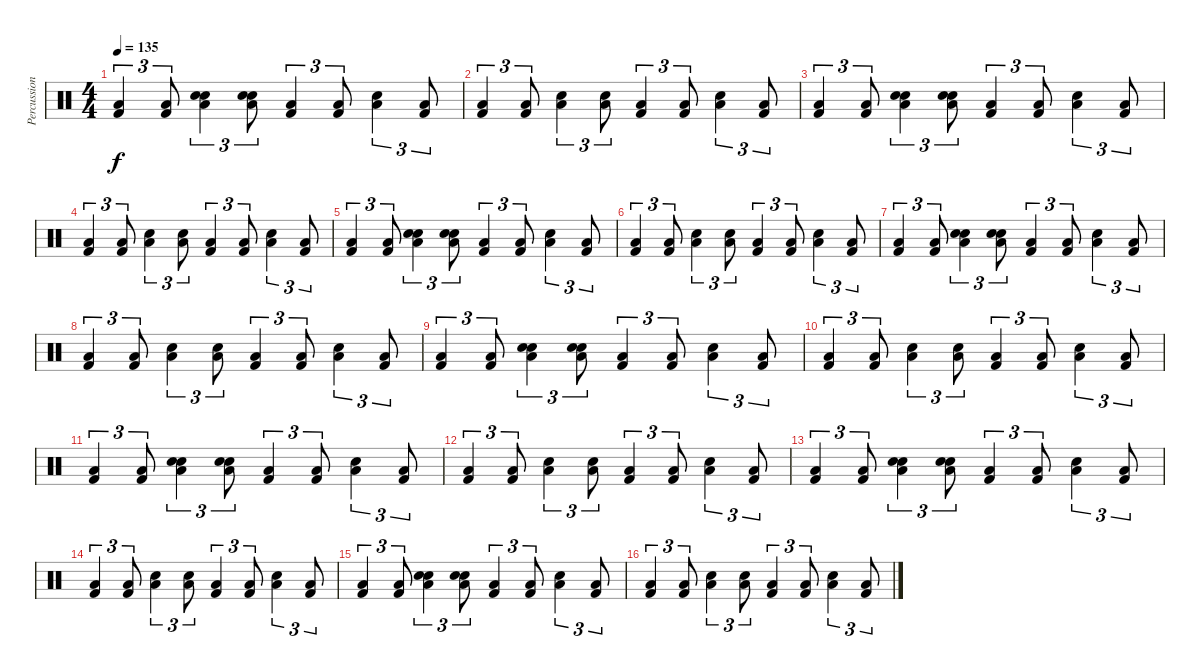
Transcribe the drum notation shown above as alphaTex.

\track ("Percussion" "Percussion") {instrument percussion}
\staff {score}
\articulation defaults
\ts (4 4)
\tempo 135
\clef neutral
\ks c
("Low Floor Tom (hit)" "Kick (hit) 2").4{tu (3 2) dy f} ("Low Floor Tom (hit)" "Kick (hit) 2").8{tu (3 2)} ("Hand Clap (hit)" "Low Floor Tom (hit)" "Electric Snare (hit)").4{tu (3 2)} ("Hand Clap (hit)" "Low Floor Tom (hit)" "Electric Snare (hit)").8{tu (3 2)} ("Low Floor Tom (hit)" "Kick (hit) 2").4{tu (3 2)} ("Low Floor Tom (hit)" "Kick (hit) 2").8{tu (3 2)} ("Low Floor Tom (hit)" "Electric Snare (hit)").4{tu (3 2)} ("Low Floor Tom (hit)" "Kick (hit) 2").8{tu (3 2)} |
("Low Floor Tom (hit)" "Kick (hit) 2").4{tu (3 2)} ("Low Floor Tom (hit)" "Kick (hit) 2").8{tu (3 2)} ("Low Floor Tom (hit)" "Electric Snare (hit)").4{tu (3 2)} ("Low Floor Tom (hit)" "Electric Snare (hit)").8{tu (3 2)} ("Low Floor Tom (hit)" "Kick (hit) 2").4{tu (3 2)} ("Low Floor Tom (hit)" "Kick (hit) 2").8{tu (3 2)} ("Low Floor Tom (hit)" "Electric Snare (hit)").4{tu (3 2)} ("Low Floor Tom (hit)" "Kick (hit) 2").8{tu (3 2)} |
("Low Floor Tom (hit)" "Kick (hit) 2").4{tu (3 2)} ("Low Floor Tom (hit)" "Kick (hit) 2").8{tu (3 2)} ("Hand Clap (hit)" "Low Floor Tom (hit)" "Electric Snare (hit)").4{tu (3 2)} ("Hand Clap (hit)" "Low Floor Tom (hit)" "Electric Snare (hit)").8{tu (3 2)} ("Low Floor Tom (hit)" "Kick (hit) 2").4{tu (3 2)} ("Low Floor Tom (hit)" "Kick (hit) 2").8{tu (3 2)} ("Low Floor Tom (hit)" "Electric Snare (hit)").4{tu (3 2)} ("Low Floor Tom (hit)" "Kick (hit) 2").8{tu (3 2)} |
("Low Floor Tom (hit)" "Kick (hit) 2").4{tu (3 2)} ("Low Floor Tom (hit)" "Kick (hit) 2").8{tu (3 2)} ("Low Floor Tom (hit)" "Electric Snare (hit)").4{tu (3 2)} ("Low Floor Tom (hit)" "Electric Snare (hit)").8{tu (3 2)} ("Low Floor Tom (hit)" "Kick (hit) 2").4{tu (3 2)} ("Low Floor Tom (hit)" "Kick (hit) 2").8{tu (3 2)} ("Low Floor Tom (hit)" "Electric Snare (hit)").4{tu (3 2)} ("Low Floor Tom (hit)" "Kick (hit) 2").8{tu (3 2)} |
("Low Floor Tom (hit)" "Kick (hit) 2").4{tu (3 2)} ("Low Floor Tom (hit)" "Kick (hit) 2").8{tu (3 2)} ("Hand Clap (hit)" "Low Floor Tom (hit)" "Electric Snare (hit)").4{tu (3 2)} ("Hand Clap (hit)" "Low Floor Tom (hit)" "Electric Snare (hit)").8{tu (3 2)} ("Low Floor Tom (hit)" "Kick (hit) 2").4{tu (3 2)} ("Low Floor Tom (hit)" "Kick (hit) 2").8{tu (3 2)} ("Low Floor Tom (hit)" "Electric Snare (hit)").4{tu (3 2)} ("Low Floor Tom (hit)" "Kick (hit) 2").8{tu (3 2)} |
("Low Floor Tom (hit)" "Kick (hit) 2").4{tu (3 2)} ("Low Floor Tom (hit)" "Kick (hit) 2").8{tu (3 2)} ("Low Floor Tom (hit)" "Electric Snare (hit)").4{tu (3 2)} ("Low Floor Tom (hit)" "Electric Snare (hit)").8{tu (3 2)} ("Low Floor Tom (hit)" "Kick (hit) 2").4{tu (3 2)} ("Low Floor Tom (hit)" "Kick (hit) 2").8{tu (3 2)} ("Low Floor Tom (hit)" "Electric Snare (hit)").4{tu (3 2)} ("Low Floor Tom (hit)" "Kick (hit) 2").8{tu (3 2)} |
("Low Floor Tom (hit)" "Kick (hit) 2").4{tu (3 2)} ("Low Floor Tom (hit)" "Kick (hit) 2").8{tu (3 2)} ("Hand Clap (hit)" "Low Floor Tom (hit)" "Electric Snare (hit)").4{tu (3 2)} ("Hand Clap (hit)" "Low Floor Tom (hit)" "Electric Snare (hit)").8{tu (3 2)} ("Low Floor Tom (hit)" "Kick (hit) 2").4{tu (3 2)} ("Low Floor Tom (hit)" "Kick (hit) 2").8{tu (3 2)} ("Low Floor Tom (hit)" "Electric Snare (hit)").4{tu (3 2)} ("Low Floor Tom (hit)" "Kick (hit) 2").8{tu (3 2)} |
("Low Floor Tom (hit)" "Kick (hit) 2").4{tu (3 2)} ("Low Floor Tom (hit)" "Kick (hit) 2").8{tu (3 2)} ("Low Floor Tom (hit)" "Electric Snare (hit)").4{tu (3 2)} ("Low Floor Tom (hit)" "Electric Snare (hit)").8{tu (3 2)} ("Low Floor Tom (hit)" "Kick (hit) 2").4{tu (3 2)} ("Low Floor Tom (hit)" "Kick (hit) 2").8{tu (3 2)} ("Low Floor Tom (hit)" "Electric Snare (hit)").4{tu (3 2)} ("Low Floor Tom (hit)" "Kick (hit) 2").8{tu (3 2)} |
("Low Floor Tom (hit)" "Kick (hit) 2").4{tu (3 2)} ("Low Floor Tom (hit)" "Kick (hit) 2").8{tu (3 2)} ("Hand Clap (hit)" "Low Floor Tom (hit)" "Electric Snare (hit)").4{tu (3 2)} ("Hand Clap (hit)" "Low Floor Tom (hit)" "Electric Snare (hit)").8{tu (3 2)} ("Low Floor Tom (hit)" "Kick (hit) 2").4{tu (3 2)} ("Low Floor Tom (hit)" "Kick (hit) 2").8{tu (3 2)} ("Low Floor Tom (hit)" "Electric Snare (hit)").4{tu (3 2)} ("Low Floor Tom (hit)" "Kick (hit) 2").8{tu (3 2)} |
("Low Floor Tom (hit)" "Kick (hit) 2").4{tu (3 2)} ("Low Floor Tom (hit)" "Kick (hit) 2").8{tu (3 2)} ("Low Floor Tom (hit)" "Electric Snare (hit)").4{tu (3 2)} ("Low Floor Tom (hit)" "Electric Snare (hit)").8{tu (3 2)} ("Low Floor Tom (hit)" "Kick (hit) 2").4{tu (3 2)} ("Low Floor Tom (hit)" "Kick (hit) 2").8{tu (3 2)} ("Low Floor Tom (hit)" "Electric Snare (hit)").4{tu (3 2)} ("Low Floor Tom (hit)" "Kick (hit) 2").8{tu (3 2)} |
("Low Floor Tom (hit)" "Kick (hit) 2").4{tu (3 2)} ("Low Floor Tom (hit)" "Kick (hit) 2").8{tu (3 2)} ("Hand Clap (hit)" "Low Floor Tom (hit)" "Electric Snare (hit)").4{tu (3 2)} ("Hand Clap (hit)" "Low Floor Tom (hit)" "Electric Snare (hit)").8{tu (3 2)} ("Low Floor Tom (hit)" "Kick (hit) 2").4{tu (3 2)} ("Low Floor Tom (hit)" "Kick (hit) 2").8{tu (3 2)} ("Low Floor Tom (hit)" "Electric Snare (hit)").4{tu (3 2)} ("Low Floor Tom (hit)" "Kick (hit) 2").8{tu (3 2)} |
("Low Floor Tom (hit)" "Kick (hit) 2").4{tu (3 2)} ("Low Floor Tom (hit)" "Kick (hit) 2").8{tu (3 2)} ("Low Floor Tom (hit)" "Electric Snare (hit)").4{tu (3 2)} ("Low Floor Tom (hit)" "Electric Snare (hit)").8{tu (3 2)} ("Low Floor Tom (hit)" "Kick (hit) 2").4{tu (3 2)} ("Low Floor Tom (hit)" "Kick (hit) 2").8{tu (3 2)} ("Low Floor Tom (hit)" "Electric Snare (hit)").4{tu (3 2)} ("Low Floor Tom (hit)" "Kick (hit) 2").8{tu (3 2)} |
("Low Floor Tom (hit)" "Kick (hit) 2").4{tu (3 2)} ("Low Floor Tom (hit)" "Kick (hit) 2").8{tu (3 2)} ("Hand Clap (hit)" "Low Floor Tom (hit)" "Electric Snare (hit)").4{tu (3 2)} ("Hand Clap (hit)" "Low Floor Tom (hit)" "Electric Snare (hit)").8{tu (3 2)} ("Low Floor Tom (hit)" "Kick (hit) 2").4{tu (3 2)} ("Low Floor Tom (hit)" "Kick (hit) 2").8{tu (3 2)} ("Low Floor Tom (hit)" "Electric Snare (hit)").4{tu (3 2)} ("Low Floor Tom (hit)" "Kick (hit) 2").8{tu (3 2)} |
("Low Floor Tom (hit)" "Kick (hit) 2").4{tu (3 2)} ("Low Floor Tom (hit)" "Kick (hit) 2").8{tu (3 2)} ("Low Floor Tom (hit)" "Electric Snare (hit)").4{tu (3 2)} ("Low Floor Tom (hit)" "Electric Snare (hit)").8{tu (3 2)} ("Low Floor Tom (hit)" "Kick (hit) 2").4{tu (3 2)} ("Low Floor Tom (hit)" "Kick (hit) 2").8{tu (3 2)} ("Low Floor Tom (hit)" "Electric Snare (hit)").4{tu (3 2)} ("Low Floor Tom (hit)" "Kick (hit) 2").8{tu (3 2)} |
("Low Floor Tom (hit)" "Kick (hit) 2").4{tu (3 2)} ("Low Floor Tom (hit)" "Kick (hit) 2").8{tu (3 2)} ("Hand Clap (hit)" "Low Floor Tom (hit)" "Electric Snare (hit)").4{tu (3 2)} ("Hand Clap (hit)" "Low Floor Tom (hit)" "Electric Snare (hit)").8{tu (3 2)} ("Low Floor Tom (hit)" "Kick (hit) 2").4{tu (3 2)} ("Low Floor Tom (hit)" "Kick (hit) 2").8{tu (3 2)} ("Low Floor Tom (hit)" "Electric Snare (hit)").4{tu (3 2)} ("Low Floor Tom (hit)" "Kick (hit) 2").8{tu (3 2)} |
("Low Floor Tom (hit)" "Kick (hit) 2").4{tu (3 2)} ("Low Floor Tom (hit)" "Kick (hit) 2").8{tu (3 2)} ("Low Floor Tom (hit)" "Electric Snare (hit)").4{tu (3 2)} ("Low Floor Tom (hit)" "Electric Snare (hit)").8{tu (3 2)} ("Low Floor Tom (hit)" "Kick (hit) 2").4{tu (3 2)} ("Low Floor Tom (hit)" "Kick (hit) 2").8{tu (3 2)} ("Low Floor Tom (hit)" "Electric Snare (hit)").4{tu (3 2)} ("Low Floor Tom (hit)" "Kick (hit) 2").8{tu (3 2)}
